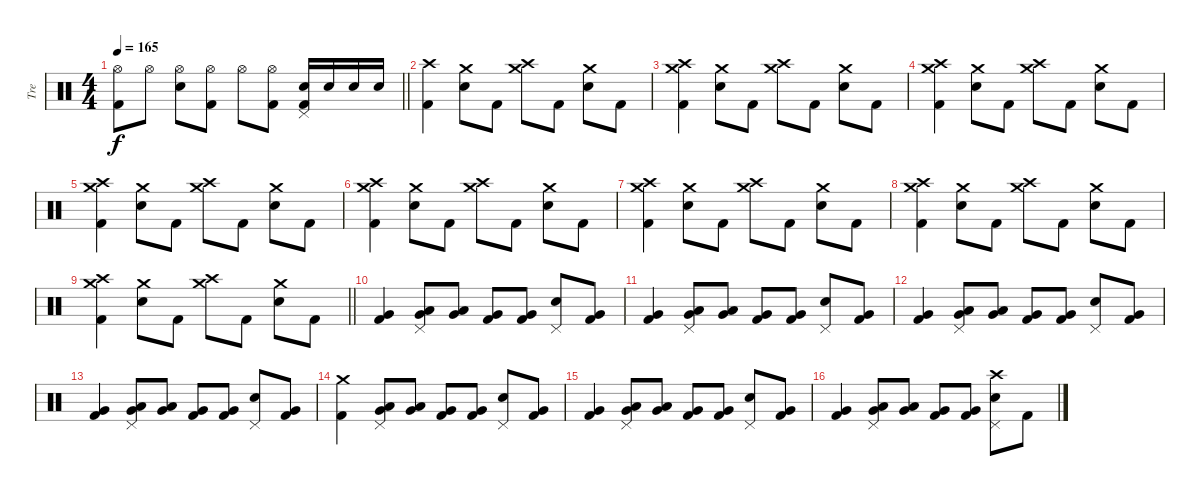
\track ("Tre" "Tre") {instrument percussion}
\staff {score}
\articulation defaults
\ts (4 4)
\tempo 165
\clef neutral
\barLineRight lightlight
\ks c
("Hi-Hat (open)" "Kick (hit) 2").8{dy f} "Hi-Hat (open)".8 ("Hi-Hat (open)" "Snare (hit) 2").8 ("Hi-Hat (open)" "Kick (hit) 2").8 "Hi-Hat (open)".8 ("Hi-Hat (open)" "Kick (hit) 2").8 ("Snare (hit) 2" "Pedal Hi-Hat (hit)" "Kick (hit) 2").16 "Snare (hit) 2".16 "Snare (hit) 2".16 "Snare (hit) 2".16 |
("Crash high (hit)" "Kick (hit) 2").4 ("Crash medium (hit)" "Snare (hit) 2").8 "Kick (hit) 2".8 ("Crash medium (hit)" "Crash high (hit)").8 "Kick (hit) 2".8 ("Crash medium (hit)" "Snare (hit) 2").8 "Kick (hit) 2".8 |
("Crash medium (hit)" "Crash high (hit)" "Kick (hit) 2").4 ("Crash medium (hit)" "Snare (hit) 2").8 "Kick (hit) 2".8 ("Crash medium (hit)" "Crash high (hit)").8 "Kick (hit) 2".8 ("Crash medium (hit)" "Snare (hit) 2").8 "Kick (hit) 2".8 |
("Crash medium (hit)" "Crash high (hit)" "Kick (hit) 2").4 ("Crash medium (hit)" "Snare (hit) 2").8 "Kick (hit) 2".8 ("Crash medium (hit)" "Crash high (hit)").8 "Kick (hit) 2".8 ("Crash medium (hit)" "Snare (hit) 2").8 "Kick (hit) 2".8 |
("Crash medium (hit)" "Crash high (hit)" "Kick (hit) 2").4 ("Crash medium (hit)" "Snare (hit) 2").8 "Kick (hit) 2".8 ("Crash medium (hit)" "Crash high (hit)").8 "Kick (hit) 2".8 ("Crash medium (hit)" "Snare (hit) 2").8 "Kick (hit) 2".8 |
("Crash medium (hit)" "Crash high (hit)" "Kick (hit) 2").4 ("Crash medium (hit)" "Snare (hit) 2").8 "Kick (hit) 2".8 ("Crash medium (hit)" "Crash high (hit)").8 "Kick (hit) 2".8 ("Crash medium (hit)" "Snare (hit) 2").8 "Kick (hit) 2".8 |
("Crash medium (hit)" "Crash high (hit)" "Kick (hit) 2").4 ("Crash medium (hit)" "Snare (hit) 2").8 "Kick (hit) 2".8 ("Crash medium (hit)" "Crash high (hit)").8 "Kick (hit) 2".8 ("Crash medium (hit)" "Snare (hit) 2").8 "Kick (hit) 2".8 |
("Crash medium (hit)" "Crash high (hit)" "Kick (hit) 2").4 ("Crash medium (hit)" "Snare (hit) 2").8 "Kick (hit) 2".8 ("Crash medium (hit)" "Crash high (hit)").8 "Kick (hit) 2".8 ("Crash medium (hit)" "Snare (hit) 2").8 "Kick (hit) 2".8 |
\barLineRight lightlight
("Crash medium (hit)" "Crash high (hit)" "Kick (hit) 2").4 ("Crash medium (hit)" "Snare (hit) 2").8 "Kick (hit) 2".8 ("Crash medium (hit)" "Crash high (hit)").8 "Kick (hit) 2".8 ("Crash medium (hit)" "Snare (hit) 2").8 "Kick (hit) 2".8 |
("Very Low Tom (hit)" "Kick (hit) 2").4 ("Low Tom (hit)" "Very Low Tom (hit)" "Pedal Hi-Hat (hit)").8 ("Low Tom (hit)" "Very Low Tom (hit)").8 ("Very Low Tom (hit)" "Kick (hit) 2").8 ("Very Low Tom (hit)" "Kick (hit) 2").8 ("Snare (hit) 2" "Pedal Hi-Hat (hit)").8 ("Very Low Tom (hit)" "Kick (hit) 2").8 |
("Very Low Tom (hit)" "Kick (hit) 2").4 ("Low Tom (hit)" "Very Low Tom (hit)" "Pedal Hi-Hat (hit)").8 ("Low Tom (hit)" "Very Low Tom (hit)").8 ("Very Low Tom (hit)" "Kick (hit) 2").8 ("Very Low Tom (hit)" "Kick (hit) 2").8 ("Snare (hit) 2" "Pedal Hi-Hat (hit)").8 ("Very Low Tom (hit)" "Kick (hit) 2").8 |
("Very Low Tom (hit)" "Kick (hit) 2").4 ("Low Tom (hit)" "Very Low Tom (hit)" "Pedal Hi-Hat (hit)").8 ("Low Tom (hit)" "Very Low Tom (hit)").8 ("Very Low Tom (hit)" "Kick (hit) 2").8 ("Very Low Tom (hit)" "Kick (hit) 2").8 ("Snare (hit) 2" "Pedal Hi-Hat (hit)").8 ("Very Low Tom (hit)" "Kick (hit) 2").8 |
("Very Low Tom (hit)" "Kick (hit) 2").4 ("Low Tom (hit)" "Very Low Tom (hit)" "Pedal Hi-Hat (hit)").8 ("Low Tom (hit)" "Very Low Tom (hit)").8 ("Very Low Tom (hit)" "Kick (hit) 2").8 ("Very Low Tom (hit)" "Kick (hit) 2").8 ("Snare (hit) 2" "Pedal Hi-Hat (hit)").8 ("Very Low Tom (hit)" "Kick (hit) 2").8 |
("Crash medium (hit)" "Kick (hit) 2").4 ("Low Tom (hit)" "Very Low Tom (hit)" "Pedal Hi-Hat (hit)").8 ("Low Tom (hit)" "Very Low Tom (hit)").8 ("Very Low Tom (hit)" "Kick (hit) 2").8 ("Very Low Tom (hit)" "Kick (hit) 2").8 ("Snare (hit) 2" "Pedal Hi-Hat (hit)").8 ("Very Low Tom (hit)" "Kick (hit) 2").8 |
("Very Low Tom (hit)" "Kick (hit) 2").4 ("Low Tom (hit)" "Very Low Tom (hit)" "Pedal Hi-Hat (hit)").8 ("Low Tom (hit)" "Very Low Tom (hit)").8 ("Very Low Tom (hit)" "Kick (hit) 2").8 ("Very Low Tom (hit)" "Kick (hit) 2").8 ("Snare (hit) 2" "Pedal Hi-Hat (hit)").8 ("Very Low Tom (hit)" "Kick (hit) 2").8 |
("Very Low Tom (hit)" "Kick (hit) 2").4 ("Low Tom (hit)" "Very Low Tom (hit)" "Pedal Hi-Hat (hit)").8 ("Low Tom (hit)" "Very Low Tom (hit)").8 ("Very Low Tom (hit)" "Kick (hit) 2").8 ("Very Low Tom (hit)" "Kick (hit) 2").8 ("Crash high (hit)" "Snare (hit) 2" "Pedal Hi-Hat (hit)").8 "Kick (hit) 2".8
